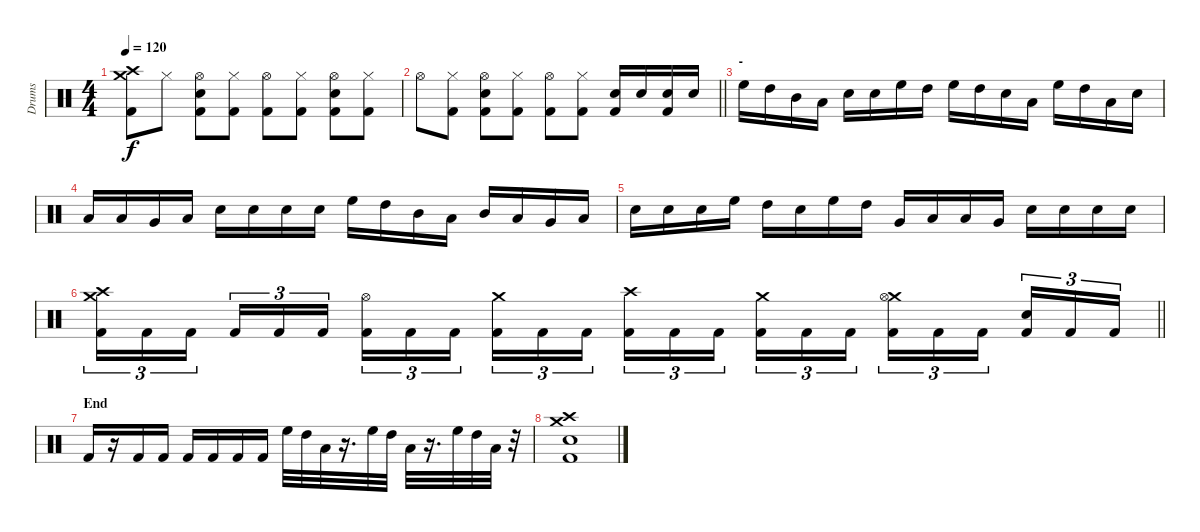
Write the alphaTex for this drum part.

\track ("Drums" "Drums") {instrument percussion}
\staff {score}
\articulation defaults
\ts (4 4)
\tempo 120
\clef neutral
\ks c
("Crash medium (hit)" "Crash high (hit)" "Kick (hit) 2").8{dy f} "Hi-Hat (closed)".8 ("Hi-Hat (open)" "Electric Snare (hit)" "Kick (hit) 2").8 ("Hi-Hat (closed)" "Kick (hit) 2").8 ("Hi-Hat (open)" "Kick (hit) 2").8 ("Hi-Hat (closed)" "Kick (hit) 2").8 ("Hi-Hat (open)" "Electric Snare (hit)" "Kick (hit) 2").8 ("Hi-Hat (closed)" "Kick (hit) 2").8 |
\barLineRight lightlight "Hi-Hat (open)".8
("Hi-Hat (closed)" "Kick (hit) 2").8 ("Hi-Hat (open)" "Electric Snare (hit)" "Kick (hit) 2").8 ("Hi-Hat (closed)" "Kick (hit) 2").8 ("Hi-Hat (open)" "Kick (hit) 2").8 ("Hi-Hat (closed)" "Kick (hit) 2").8 ("Electric Snare (hit)" "Kick (hit) 2").16 "Electric Snare (hit)".16 ("Electric Snare (hit)" "Kick (hit) 2").16 "Electric Snare (hit)".16 |
\section ("" "-")
"High Floor Tom (hit)".16 "High Tom (hit)".16 "Mid Tom (hit)".16 "Low Tom (hit)".16 "Electric Snare (hit)".16 "Electric Snare (hit)".16 "High Floor Tom (hit)".16 "High Tom (hit)".16 "High Floor Tom (hit)".16 "High Tom (hit)".16 "Electric Snare (hit)".16 "Low Floor Tom (hit)".16 "High Floor Tom (hit)".16 "High Tom (hit)".16 "Low Tom (hit)".16 "Electric Snare (hit)".16 |
"Low Floor Tom (hit)".16 "Low Floor Tom (hit)".16 "Very Low Tom (hit)".16 "Low Tom (hit)".16 "Electric Snare (hit)".16 "Electric Snare (hit)".16 "Electric Snare (hit)".16 "Electric Snare (hit)".16 "High Floor Tom (hit)".16 "High Tom (hit)".16 "Mid Tom (hit)".16 "Low Tom (hit)".16 "Mid Tom (hit)".16 "Low Tom (hit)".16 "Very Low Tom (hit)".16 "Low Floor Tom (hit)".16 |
"Electric Snare (hit)".16 "Electric Snare (hit)".16 "Electric Snare (hit)".16 "High Floor Tom (hit)".16 "High Tom (hit)".16 "Electric Snare (hit)".16 "High Floor Tom (hit)".16 "High Tom (hit)".16 "Very Low Tom (hit)".16 "Low Floor Tom (hit)".16 "Low Tom (hit)".16 "Very Low Tom (hit)".16 "Electric Snare (hit)".16 "Electric Snare (hit)".16 "Electric Snare (hit)".16 "Electric Snare (hit)".16 |
\barLineRight lightlight
("Crash high (hit)" "Crash medium (hit)" "Kick (hit) 2").16{tu (3 2)} "Kick (hit) 2".16{tu (3 2)} "Kick (hit) 2".16{tu (3 2)} "Kick (hit) 2".16{tu (3 2)} "Kick (hit) 2".16{tu (3 2)} "Kick (hit) 2".16{tu (3 2)} ("Hi-Hat (open)" "Kick (hit) 2").16{tu (3 2)} "Kick (hit) 2".16{tu (3 2)} "Kick (hit) 2".16{tu (3 2)} ("Crash medium (hit)" "Kick (hit) 2").16{tu (3 2)} "Kick (hit) 2".16{tu (3 2)} "Kick (hit) 2".16{tu (3 2)} ("Crash high (hit)" "Kick (hit) 2").16{tu (3 2)} "Kick (hit) 2".16{tu (3 2)} "Kick (hit) 2".16{tu (3 2)} ("Crash medium (hit)" "Kick (hit) 2").16{tu (3 2)} "Kick (hit) 2".16{tu (3 2)} "Kick (hit) 2".16{tu (3 2)} ("Crash medium (hit)" "Hi-Hat (open)" "Kick (hit) 2").16{tu (3 2)} "Kick (hit) 2".16{tu (3 2)} "Kick (hit) 2".16{tu (3 2)} ("Electric Snare (hit)" "Kick (hit) 2").16{tu (3 2)} "Kick (hit) 2".16{tu (3 2)} "Kick (hit) 2".16{tu (3 2)} |
\section ("" "End")
"Kick (hit) 2".16 r.16 "Kick (hit) 2".16 "Kick (hit) 2".16 "Kick (hit) 2".16 "Kick (hit) 2".16 "Kick (hit) 2".16 "Kick (hit) 2".16 "High Floor Tom (hit)".32 "High Tom (hit)".32 "Low Tom (hit)".32 r.16{d} "High Floor Tom (hit)".32 "High Tom (hit)".32 "Low Tom (hit)".32 r.16{d} "High Floor Tom (hit)".32 "High Tom (hit)".32 "Low Tom (hit)".32 r.32 |
("Crash medium (hit)" "Crash high (hit)" "Electric Snare (hit)" "Kick (hit) 2").1
